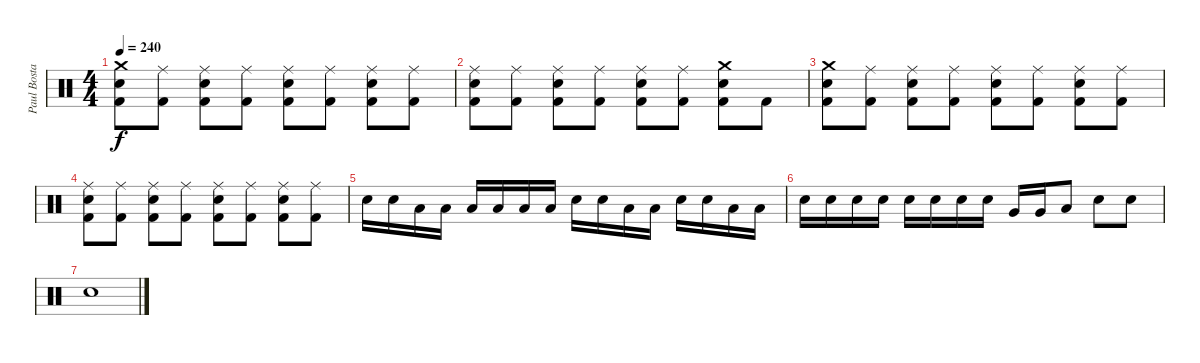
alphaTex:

\track ("Paul Bostaph" "Paul Bosta") {instrument percussion}
\staff {score}
\articulation defaults
\ts (4 4)
\tempo 240
\clef neutral
\ks c
("Crash medium (hit)" "Kick (hit) 2" "Electric Snare (hit)").8{dy f} ("Ride (middle)" "Kick (hit) 2").8 ("Ride (middle)" "Kick (hit) 2" "Electric Snare (hit)").8 ("Ride (middle)" "Kick (hit) 2").8 ("Ride (middle)" "Kick (hit) 2" "Electric Snare (hit)").8 ("Ride (middle)" "Kick (hit) 2").8 ("Ride (middle)" "Kick (hit) 2" "Electric Snare (hit)").8 ("Ride (middle)" "Kick (hit) 2").8 |
("Ride (middle)" "Kick (hit) 2" "Electric Snare (hit)").8 ("Ride (middle)" "Kick (hit) 2").8 ("Ride (middle)" "Kick (hit) 2" "Electric Snare (hit)").8 ("Ride (middle)" "Kick (hit) 2").8 ("Ride (middle)" "Kick (hit) 2" "Electric Snare (hit)").8 ("Ride (middle)" "Kick (hit) 2").8 ("Crash medium (hit)" "Kick (hit) 2" "Electric Snare (hit)").8 "Kick (hit) 2".8 |
("Crash medium (hit)" "Kick (hit) 2" "Electric Snare (hit)").8 ("Ride (middle)" "Kick (hit) 2").8 ("Ride (middle)" "Kick (hit) 2" "Electric Snare (hit)").8 ("Ride (middle)" "Kick (hit) 2").8 ("Ride (middle)" "Kick (hit) 2" "Electric Snare (hit)").8 ("Ride (middle)" "Kick (hit) 2").8 ("Ride (middle)" "Kick (hit) 2" "Electric Snare (hit)").8 ("Ride (middle)" "Kick (hit) 2").8 |
("Ride (middle)" "Kick (hit) 2" "Electric Snare (hit)").8 ("Ride (middle)" "Kick (hit) 2").8 ("Ride (middle)" "Kick (hit) 2" "Electric Snare (hit)").8 ("Ride (middle)" "Kick (hit) 2").8 ("Ride (middle)" "Kick (hit) 2" "Electric Snare (hit)").8 ("Ride (middle)" "Kick (hit) 2").8 ("Ride (middle)" "Kick (hit) 2" "Electric Snare (hit)").8 ("Ride (middle)" "Kick (hit) 2").8 |
"Electric Snare (hit)".16 "Electric Snare (hit)".16 "Low Tom (hit)".16 "Low Tom (hit)".16 "Low Tom (hit)".16 "Low Tom (hit)".16 "Low Tom (hit)".16 "Low Tom (hit)".16 "Electric Snare (hit)".16 "Electric Snare (hit)".16 "Low Tom (hit)".16 "Low Tom (hit)".16 "Electric Snare (hit)".16 "Electric Snare (hit)".16 "Low Tom (hit)".16 "Low Tom (hit)".16 |
"Electric Snare (hit)".16 "Electric Snare (hit)".16 "Electric Snare (hit)".16 "Electric Snare (hit)".16 "Electric Snare (hit)".16 "Electric Snare (hit)".16 "Electric Snare (hit)".16 "Electric Snare (hit)".16 "Very Low Tom (hit)".16 "Very Low Tom (hit)".16 "Low Floor Tom (hit)".8 "Electric Snare (hit)".8 "Electric Snare (hit)".8 |
"Electric Snare (hit)".1
